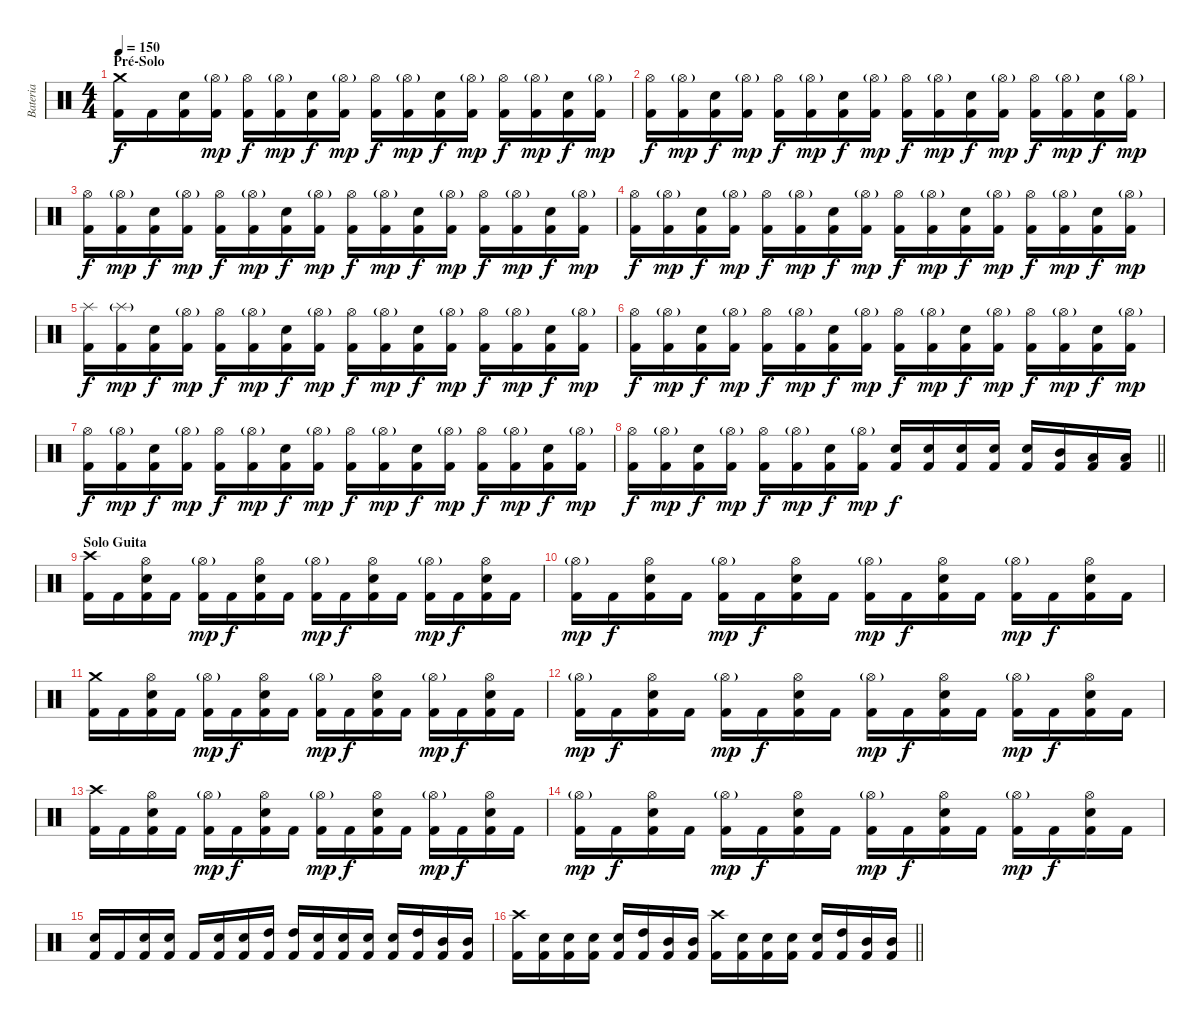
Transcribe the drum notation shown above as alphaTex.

\track ("Bateria" "Bateria") {instrument percussion}
\staff {score}
\articulation defaults
\ts (4 4)
\section ("" "Pré-Solo")
\tempo 150
\clef neutral
\ks c
("Crash medium (hit)" "Kick (hit) 2").16{dy f} "Kick (hit) 2".16 ("Electric Snare (hit)" "Kick (hit) 2").16 ("Hi-Hat (open)"{g} "Kick (hit) 2").16{dy mp} ("Hi-Hat (open)" "Kick (hit) 2").16{dy f} ("Hi-Hat (open)"{g} "Kick (hit) 2").16{dy mp} ("Electric Snare (hit)" "Kick (hit) 2").16{dy f} ("Hi-Hat (open)"{g} "Kick (hit) 2").16{dy mp} ("Hi-Hat (open)" "Kick (hit) 2").16{dy f} ("Hi-Hat (open)"{g} "Kick (hit) 2").16{dy mp} ("Electric Snare (hit)" "Kick (hit) 2").16{dy f} ("Hi-Hat (open)"{g} "Kick (hit) 2").16{dy mp} ("Hi-Hat (open)" "Kick (hit) 2").16{dy f} ("Hi-Hat (open)"{g} "Kick (hit) 2").16{dy mp} ("Electric Snare (hit)" "Kick (hit) 2").16{dy f} ("Hi-Hat (open)"{g} "Kick (hit) 2").16{dy mp} |
("Hi-Hat (open)" "Kick (hit) 2").16{dy f} ("Hi-Hat (open)"{g} "Kick (hit) 2").16{dy mp} ("Electric Snare (hit)" "Kick (hit) 2").16{dy f} ("Hi-Hat (open)"{g} "Kick (hit) 2").16{dy mp} ("Hi-Hat (open)" "Kick (hit) 2").16{dy f} ("Hi-Hat (open)"{g} "Kick (hit) 2").16{dy mp} ("Electric Snare (hit)" "Kick (hit) 2").16{dy f} ("Hi-Hat (open)"{g} "Kick (hit) 2").16{dy mp} ("Hi-Hat (open)" "Kick (hit) 2").16{dy f} ("Hi-Hat (open)"{g} "Kick (hit) 2").16{dy mp} ("Electric Snare (hit)" "Kick (hit) 2").16{dy f} ("Hi-Hat (open)"{g} "Kick (hit) 2").16{dy mp} ("Hi-Hat (open)" "Kick (hit) 2").16{dy f} ("Hi-Hat (open)"{g} "Kick (hit) 2").16{dy mp} ("Electric Snare (hit)" "Kick (hit) 2").16{dy f} ("Hi-Hat (open)"{g} "Kick (hit) 2").16{dy mp} |
("Hi-Hat (open)" "Kick (hit) 2").16{dy f} ("Hi-Hat (open)"{g} "Kick (hit) 2").16{dy mp} ("Electric Snare (hit)" "Kick (hit) 2").16{dy f} ("Hi-Hat (open)"{g} "Kick (hit) 2").16{dy mp} ("Hi-Hat (open)" "Kick (hit) 2").16{dy f} ("Hi-Hat (open)"{g} "Kick (hit) 2").16{dy mp} ("Electric Snare (hit)" "Kick (hit) 2").16{dy f} ("Hi-Hat (open)"{g} "Kick (hit) 2").16{dy mp} ("Hi-Hat (open)" "Kick (hit) 2").16{dy f} ("Hi-Hat (open)"{g} "Kick (hit) 2").16{dy mp} ("Electric Snare (hit)" "Kick (hit) 2").16{dy f} ("Hi-Hat (open)"{g} "Kick (hit) 2").16{dy mp} ("Hi-Hat (open)" "Kick (hit) 2").16{dy f} ("Hi-Hat (open)"{g} "Kick (hit) 2").16{dy mp} ("Electric Snare (hit)" "Kick (hit) 2").16{dy f} ("Hi-Hat (open)"{g} "Kick (hit) 2").16{dy mp} |
("Hi-Hat (open)" "Kick (hit) 2").16{dy f} ("Hi-Hat (open)"{g} "Kick (hit) 2").16{dy mp} ("Electric Snare (hit)" "Kick (hit) 2").16{dy f} ("Hi-Hat (open)"{g} "Kick (hit) 2").16{dy mp} ("Hi-Hat (open)" "Kick (hit) 2").16{dy f} ("Hi-Hat (open)"{g} "Kick (hit) 2").16{dy mp} ("Electric Snare (hit)" "Kick (hit) 2").16{dy f} ("Hi-Hat (open)"{g} "Kick (hit) 2").16{dy mp} ("Hi-Hat (open)" "Kick (hit) 2").16{dy f} ("Hi-Hat (open)"{g} "Kick (hit) 2").16{dy mp} ("Electric Snare (hit)" "Kick (hit) 2").16{dy f} ("Hi-Hat (open)"{g} "Kick (hit) 2").16{dy mp} ("Hi-Hat (open)" "Kick (hit) 2").16{dy f} ("Hi-Hat (open)"{g} "Kick (hit) 2").16{dy mp} ("Electric Snare (hit)" "Kick (hit) 2").16{dy f} ("Hi-Hat (open)"{g} "Kick (hit) 2").16{dy mp} |
("Splash (hit)" "Kick (hit) 2").16{dy f} ("Splash (hit)"{g} "Kick (hit) 2").16{dy mp} ("Electric Snare (hit)" "Kick (hit) 2").16{dy f} ("Hi-Hat (open)"{g} "Kick (hit) 2").16{dy mp} ("Hi-Hat (open)" "Kick (hit) 2").16{dy f} ("Hi-Hat (open)"{g} "Kick (hit) 2").16{dy mp} ("Electric Snare (hit)" "Kick (hit) 2").16{dy f} ("Hi-Hat (open)"{g} "Kick (hit) 2").16{dy mp} ("Hi-Hat (open)" "Kick (hit) 2").16{dy f} ("Hi-Hat (open)"{g} "Kick (hit) 2").16{dy mp} ("Electric Snare (hit)" "Kick (hit) 2").16{dy f} ("Hi-Hat (open)"{g} "Kick (hit) 2").16{dy mp} ("Hi-Hat (open)" "Kick (hit) 2").16{dy f} ("Hi-Hat (open)"{g} "Kick (hit) 2").16{dy mp} ("Electric Snare (hit)" "Kick (hit) 2").16{dy f} ("Hi-Hat (open)"{g} "Kick (hit) 2").16{dy mp} |
("Hi-Hat (open)" "Kick (hit) 2").16{dy f} ("Hi-Hat (open)"{g} "Kick (hit) 2").16{dy mp} ("Electric Snare (hit)" "Kick (hit) 2").16{dy f} ("Hi-Hat (open)"{g} "Kick (hit) 2").16{dy mp} ("Hi-Hat (open)" "Kick (hit) 2").16{dy f} ("Hi-Hat (open)"{g} "Kick (hit) 2").16{dy mp} ("Electric Snare (hit)" "Kick (hit) 2").16{dy f} ("Hi-Hat (open)"{g} "Kick (hit) 2").16{dy mp} ("Hi-Hat (open)" "Kick (hit) 2").16{dy f} ("Hi-Hat (open)"{g} "Kick (hit) 2").16{dy mp} ("Electric Snare (hit)" "Kick (hit) 2").16{dy f} ("Hi-Hat (open)"{g} "Kick (hit) 2").16{dy mp} ("Hi-Hat (open)" "Kick (hit) 2").16{dy f} ("Hi-Hat (open)"{g} "Kick (hit) 2").16{dy mp} ("Electric Snare (hit)" "Kick (hit) 2").16{dy f} ("Hi-Hat (open)"{g} "Kick (hit) 2").16{dy mp} |
("Hi-Hat (open)" "Kick (hit) 2").16{dy f} ("Hi-Hat (open)"{g} "Kick (hit) 2").16{dy mp} ("Electric Snare (hit)" "Kick (hit) 2").16{dy f} ("Hi-Hat (open)"{g} "Kick (hit) 2").16{dy mp} ("Hi-Hat (open)" "Kick (hit) 2").16{dy f} ("Hi-Hat (open)"{g} "Kick (hit) 2").16{dy mp} ("Electric Snare (hit)" "Kick (hit) 2").16{dy f} ("Hi-Hat (open)"{g} "Kick (hit) 2").16{dy mp} ("Hi-Hat (open)" "Kick (hit) 2").16{dy f} ("Hi-Hat (open)"{g} "Kick (hit) 2").16{dy mp} ("Electric Snare (hit)" "Kick (hit) 2").16{dy f} ("Hi-Hat (open)"{g} "Kick (hit) 2").16{dy mp} ("Hi-Hat (open)" "Kick (hit) 2").16{dy f} ("Hi-Hat (open)"{g} "Kick (hit) 2").16{dy mp} ("Electric Snare (hit)" "Kick (hit) 2").16{dy f} ("Hi-Hat (open)"{g} "Kick (hit) 2").16{dy mp} |
\barLineRight lightlight
("Hi-Hat (open)" "Kick (hit) 2").16{dy f} ("Hi-Hat (open)"{g} "Kick (hit) 2").16{dy mp} ("Electric Snare (hit)" "Kick (hit) 2").16{dy f} ("Hi-Hat (open)"{g} "Kick (hit) 2").16{dy mp} ("Hi-Hat (open)" "Kick (hit) 2").16{dy f} ("Hi-Hat (open)"{g} "Kick (hit) 2").16{dy mp} ("Electric Snare (hit)" "Kick (hit) 2").16{dy f} ("Hi-Hat (open)"{g} "Kick (hit) 2").16{dy mp} ("Electric Snare (hit)" "Kick (hit) 2").16{dy f} ("Electric Snare (hit)" "Kick (hit) 2").16 ("Electric Snare (hit)" "Kick (hit) 2").16 ("Electric Snare (hit)" "Kick (hit) 2").16 ("Electric Snare (hit)" "Kick (hit) 2").16 ("Mid Tom (hit)" "Kick (hit) 2").16 ("Low Tom (hit)" "Kick (hit) 2").16 ("Low Tom (hit)" "Kick (hit) 2").16 |
\section ("" "Solo Guita")
("Crash high (hit)" "Kick (hit) 2").16 "Kick (hit) 2".16 ("Hi-Hat (open)" "Electric Snare (hit)" "Kick (hit) 2").16 "Kick (hit) 2".16 ("Hi-Hat (open)"{g} "Kick (hit) 2").16{dy mp} "Kick (hit) 2".16{dy f} ("Hi-Hat (open)" "Electric Snare (hit)" "Kick (hit) 2").16 "Kick (hit) 2".16 ("Hi-Hat (open)"{g} "Kick (hit) 2").16{dy mp} "Kick (hit) 2".16{dy f} ("Hi-Hat (open)" "Electric Snare (hit)" "Kick (hit) 2").16 "Kick (hit) 2".16 ("Hi-Hat (open)"{g} "Kick (hit) 2").16{dy mp} "Kick (hit) 2".16{dy f} ("Hi-Hat (open)" "Electric Snare (hit)" "Kick (hit) 2").16 "Kick (hit) 2".16 |
("Hi-Hat (open)"{g} "Kick (hit) 2").16{dy mp} "Kick (hit) 2".16{dy f} ("Hi-Hat (open)" "Electric Snare (hit)" "Kick (hit) 2").16 "Kick (hit) 2".16 ("Hi-Hat (open)"{g} "Kick (hit) 2").16{dy mp} "Kick (hit) 2".16{dy f} ("Hi-Hat (open)" "Electric Snare (hit)" "Kick (hit) 2").16 "Kick (hit) 2".16 ("Hi-Hat (open)"{g} "Kick (hit) 2").16{dy mp} "Kick (hit) 2".16{dy f} ("Hi-Hat (open)" "Electric Snare (hit)" "Kick (hit) 2").16 "Kick (hit) 2".16 ("Hi-Hat (open)"{g} "Kick (hit) 2").16{dy mp} "Kick (hit) 2".16{dy f} ("Hi-Hat (open)" "Electric Snare (hit)" "Kick (hit) 2").16 "Kick (hit) 2".16 |
("Crash medium (hit)" "Kick (hit) 2").16 "Kick (hit) 2".16 ("Hi-Hat (open)" "Electric Snare (hit)" "Kick (hit) 2").16 "Kick (hit) 2".16 ("Hi-Hat (open)"{g} "Kick (hit) 2").16{dy mp} "Kick (hit) 2".16{dy f} ("Hi-Hat (open)" "Electric Snare (hit)" "Kick (hit) 2").16 "Kick (hit) 2".16 ("Hi-Hat (open)"{g} "Kick (hit) 2").16{dy mp} "Kick (hit) 2".16{dy f} ("Hi-Hat (open)" "Electric Snare (hit)" "Kick (hit) 2").16 "Kick (hit) 2".16 ("Hi-Hat (open)"{g} "Kick (hit) 2").16{dy mp} "Kick (hit) 2".16{dy f} ("Hi-Hat (open)" "Electric Snare (hit)" "Kick (hit) 2").16 "Kick (hit) 2".16 |
("Hi-Hat (open)"{g} "Kick (hit) 2").16{dy mp} "Kick (hit) 2".16{dy f} ("Hi-Hat (open)" "Electric Snare (hit)" "Kick (hit) 2").16 "Kick (hit) 2".16 ("Hi-Hat (open)"{g} "Kick (hit) 2").16{dy mp} "Kick (hit) 2".16{dy f} ("Hi-Hat (open)" "Electric Snare (hit)" "Kick (hit) 2").16 "Kick (hit) 2".16 ("Hi-Hat (open)"{g} "Kick (hit) 2").16{dy mp} "Kick (hit) 2".16{dy f} ("Hi-Hat (open)" "Electric Snare (hit)" "Kick (hit) 2").16 "Kick (hit) 2".16 ("Hi-Hat (open)"{g} "Kick (hit) 2").16{dy mp} "Kick (hit) 2".16{dy f} ("Hi-Hat (open)" "Electric Snare (hit)" "Kick (hit) 2").16 "Kick (hit) 2".16 |
("Crash high (hit)" "Kick (hit) 2").16 "Kick (hit) 2".16 ("Hi-Hat (open)" "Electric Snare (hit)" "Kick (hit) 2").16 "Kick (hit) 2".16 ("Hi-Hat (open)"{g} "Kick (hit) 2").16{dy mp} "Kick (hit) 2".16{dy f} ("Hi-Hat (open)" "Electric Snare (hit)" "Kick (hit) 2").16 "Kick (hit) 2".16 ("Hi-Hat (open)"{g} "Kick (hit) 2").16{dy mp} "Kick (hit) 2".16{dy f} ("Hi-Hat (open)" "Electric Snare (hit)" "Kick (hit) 2").16 "Kick (hit) 2".16 ("Hi-Hat (open)"{g} "Kick (hit) 2").16{dy mp} "Kick (hit) 2".16{dy f} ("Hi-Hat (open)" "Electric Snare (hit)" "Kick (hit) 2").16 "Kick (hit) 2".16 |
("Hi-Hat (open)"{g} "Kick (hit) 2").16{dy mp} "Kick (hit) 2".16{dy f} ("Hi-Hat (open)" "Electric Snare (hit)" "Kick (hit) 2").16 "Kick (hit) 2".16 ("Hi-Hat (open)"{g} "Kick (hit) 2").16{dy mp} "Kick (hit) 2".16{dy f} ("Hi-Hat (open)" "Electric Snare (hit)" "Kick (hit) 2").16 "Kick (hit) 2".16 ("Hi-Hat (open)"{g} "Kick (hit) 2").16{dy mp} "Kick (hit) 2".16{dy f} ("Hi-Hat (open)" "Electric Snare (hit)" "Kick (hit) 2").16 "Kick (hit) 2".16 ("Hi-Hat (open)"{g} "Kick (hit) 2").16{dy mp} "Kick (hit) 2".16{dy f} ("Hi-Hat (open)" "Electric Snare (hit)" "Kick (hit) 2").16 "Kick (hit) 2".16 |
("Electric Snare (hit)" "Kick (hit) 2").16 "Kick (hit) 2".16 ("Electric Snare (hit)" "Kick (hit) 2").16 ("Electric Snare (hit)" "Kick (hit) 2").16 "Kick (hit) 2".16 ("Electric Snare (hit)" "Kick (hit) 2").16 ("Electric Snare (hit)" "Kick (hit) 2").16 ("High Tom (hit)" "Kick (hit) 2").16 ("High Tom (hit)" "Kick (hit) 2").16 ("Electric Snare (hit)" "Kick (hit) 2").16 ("Electric Snare (hit)" "Kick (hit) 2").16 ("Electric Snare (hit)" "Kick (hit) 2").16 ("Electric Snare (hit)" "Kick (hit) 2").16 ("High Tom (hit)" "Kick (hit) 2").16 ("Mid Tom (hit)" "Kick (hit) 2").16 ("Mid Tom (hit)" "Kick (hit) 2").16 |
\barLineRight lightlight
("Crash high (hit)" "Kick (hit) 2").16 ("Electric Snare (hit)" "Kick (hit) 2").16 ("Electric Snare (hit)" "Kick (hit) 2").16 ("Electric Snare (hit)" "Kick (hit) 2").16 ("Electric Snare (hit)" "Kick (hit) 2").16 ("High Tom (hit)" "Kick (hit) 2").16 ("Mid Tom (hit)" "Kick (hit) 2").16 ("Mid Tom (hit)" "Kick (hit) 2").16 ("Crash high (hit)" "Kick (hit) 2").16 ("Electric Snare (hit)" "Kick (hit) 2").16 ("Electric Snare (hit)" "Kick (hit) 2").16 ("Electric Snare (hit)" "Kick (hit) 2").16 ("Electric Snare (hit)" "Kick (hit) 2").16 ("High Tom (hit)" "Kick (hit) 2").16 ("Mid Tom (hit)" "Kick (hit) 2").16 ("Mid Tom (hit)" "Kick (hit) 2").16
